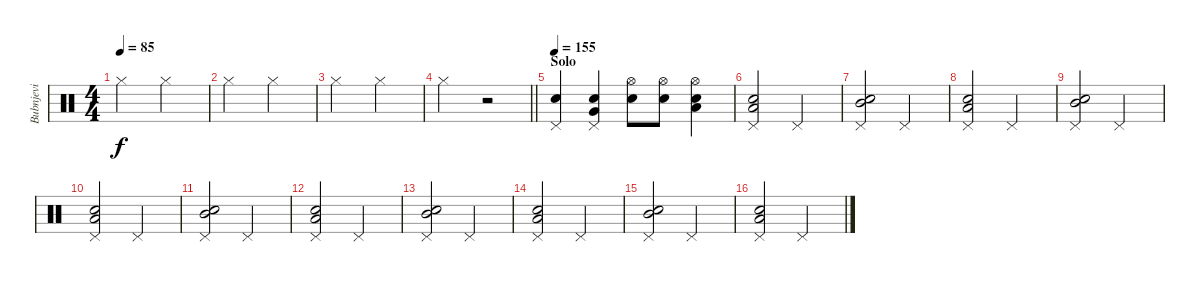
\track ("Bubnjevi" "Bubnjevi") {instrument percussion}
\staff {score}
\articulation defaults
\ts (4 4)
\tempo 85
\clef neutral
\ks c "Hi-Hat (closed)".2{dy f} "Hi-Hat (closed)".2
|
"Hi-Hat (closed)".2 "Hi-Hat (closed)".2 |
"Hi-Hat (closed)".2 "Hi-Hat (closed)".2 |
\barLineRight lightlight "Hi-Hat (closed)".2
r.2 |
\section ("" "Solo")
\tempo 155
("Pedal Hi-Hat (hit)" "Electric Snare (hit)").4 ("Pedal Hi-Hat (hit)" "Very Low Tom (hit)" "Electric Snare (hit)").4 ("Hi-Hat (open)" "Electric Snare (hit)").8 ("Hi-Hat (open)" "Electric Snare (hit)").8 ("Hi-Hat (open)" "Low Tom (hit)" "Electric Snare (hit)").4 |
("Pedal Hi-Hat (hit)" "Low Tom (hit)" "Electric Snare (hit)").2 "Pedal Hi-Hat (hit)".2 |
("Pedal Hi-Hat (hit)" "Mid Tom (hit)" "Electric Snare (hit)").2 "Pedal Hi-Hat (hit)".2 |
("Pedal Hi-Hat (hit)" "Low Tom (hit)" "Electric Snare (hit)").2 "Pedal Hi-Hat (hit)".2 |
("Pedal Hi-Hat (hit)" "Mid Tom (hit)" "Electric Snare (hit)").2 "Pedal Hi-Hat (hit)".2 |
("Pedal Hi-Hat (hit)" "Low Tom (hit)" "Electric Snare (hit)").2 "Pedal Hi-Hat (hit)".2 |
("Pedal Hi-Hat (hit)" "Mid Tom (hit)" "Electric Snare (hit)").2 "Pedal Hi-Hat (hit)".2 |
("Pedal Hi-Hat (hit)" "Low Tom (hit)" "Electric Snare (hit)").2 "Pedal Hi-Hat (hit)".2 |
("Pedal Hi-Hat (hit)" "Mid Tom (hit)" "Electric Snare (hit)").2 "Pedal Hi-Hat (hit)".2 |
("Pedal Hi-Hat (hit)" "Low Tom (hit)" "Electric Snare (hit)").2 "Pedal Hi-Hat (hit)".2 |
("Pedal Hi-Hat (hit)" "Mid Tom (hit)" "Electric Snare (hit)").2 "Pedal Hi-Hat (hit)".2 |
("Pedal Hi-Hat (hit)" "Low Tom (hit)" "Electric Snare (hit)").2 "Pedal Hi-Hat (hit)".2
